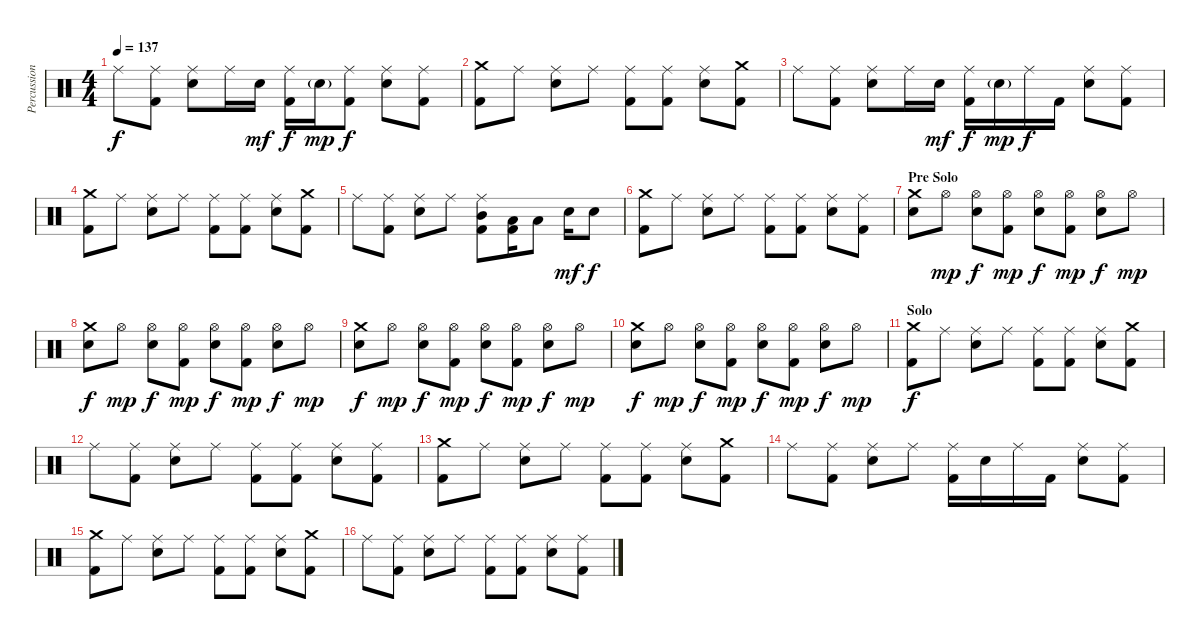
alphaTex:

\track ("Percussion" "Percussion") {instrument percussion}
\staff {score}
\articulation defaults
\ts (4 4)
\tempo 137
\clef neutral
\ks c "Ride (middle)".8{dy f}
("Ride (middle)" "Kick (hit) 2").8 ("Ride (middle)" "Electric Snare (hit)").8 "Ride (middle)".16 "Electric Snare (hit)".16{dy mf} ("Ride (middle)" "Kick (hit) 2").16{dy f} "Electric Snare (hit)"{g}.16{dy mp} ("Ride (middle)" "Kick (hit) 2").8{dy f} ("Ride (middle)" "Electric Snare (hit)").8 ("Ride (middle)" "Kick (hit) 2").8 |
("Crash medium (hit)" "Kick (hit) 2").8 "Ride (middle)".8 ("Ride (middle)" "Electric Snare (hit)").8 "Ride (middle)".8 ("Ride (middle)" "Kick (hit) 2").8 ("Ride (middle)" "Kick (hit) 2").8 ("Ride (middle)" "Electric Snare (hit)").8 ("Crash medium (hit)" "Kick (hit) 2").8 |
"Ride (middle)".8 ("Ride (middle)" "Kick (hit) 2").8 ("Ride (middle)" "Electric Snare (hit)").8 "Ride (middle)".16 "Electric Snare (hit)".16{dy mf} ("Ride (middle)" "Kick (hit) 2").16{dy f} "Electric Snare (hit)"{g}.16{dy mp} "Ride (middle)".16{dy f} "Kick (hit) 2".16 ("Ride (middle)" "Electric Snare (hit)").8 ("Ride (middle)" "Kick (hit) 2").8 |
("Crash medium (hit)" "Kick (hit) 2").8 "Ride (middle)".8 ("Ride (middle)" "Electric Snare (hit)").8 "Ride (middle)".8 ("Ride (middle)" "Kick (hit) 2").8 ("Ride (middle)" "Kick (hit) 2").8 ("Ride (middle)" "Electric Snare (hit)").8 ("Crash medium (hit)" "Kick (hit) 2").8 |
"Ride (middle)".8 ("Ride (middle)" "Kick (hit) 2").8 ("Ride (middle)" "Electric Snare (hit)").8 "Ride (middle)".8 ("Ride (middle)" "Mid Tom (hit)" "Kick (hit) 2").8 ("Low Tom (hit)" "Kick (hit) 2").16 "Low Tom (hit)".8 "Electric Snare (hit)".16{dy mf} "Electric Snare (hit)".8{dy f} |
("Crash medium (hit)" "Kick (hit) 2").8 "Ride (middle)".8 ("Ride (middle)" "Electric Snare (hit)").8 "Ride (middle)".8 ("Ride (middle)" "Kick (hit) 2").8 ("Ride (middle)" "Kick (hit) 2").8 ("Ride (middle)" "Electric Snare (hit)").8 ("Ride (middle)" "Kick (hit) 2").8 |
\section ("" "Pre Solo")
("Crash medium (hit)" "Electric Snare (hit)").8 "Hi-Hat (open)".8{dy mp} ("Hi-Hat (open)" "Electric Snare (hit)").8{dy f} ("Hi-Hat (open)" "Kick (hit) 2").8{dy mp} ("Hi-Hat (open)" "Electric Snare (hit)").8{dy f} ("Hi-Hat (open)" "Kick (hit) 2").8{dy mp} ("Hi-Hat (open)" "Electric Snare (hit)").8{dy f} "Hi-Hat (open)".8{dy mp} |
("Crash medium (hit)" "Electric Snare (hit)").8{dy f} "Hi-Hat (open)".8{dy mp} ("Hi-Hat (open)" "Electric Snare (hit)").8{dy f} ("Hi-Hat (open)" "Kick (hit) 2").8{dy mp} ("Hi-Hat (open)" "Electric Snare (hit)").8{dy f} ("Hi-Hat (open)" "Kick (hit) 2").8{dy mp} ("Hi-Hat (open)" "Electric Snare (hit)").8{dy f} "Hi-Hat (open)".8{dy mp} |
("Crash medium (hit)" "Electric Snare (hit)").8{dy f} "Hi-Hat (open)".8{dy mp} ("Hi-Hat (open)" "Electric Snare (hit)").8{dy f} ("Hi-Hat (open)" "Kick (hit) 2").8{dy mp} ("Hi-Hat (open)" "Electric Snare (hit)").8{dy f} ("Hi-Hat (open)" "Kick (hit) 2").8{dy mp} ("Hi-Hat (open)" "Electric Snare (hit)").8{dy f} "Hi-Hat (open)".8{dy mp} |
("Crash medium (hit)" "Electric Snare (hit)").8{dy f} "Hi-Hat (open)".8{dy mp} ("Hi-Hat (open)" "Electric Snare (hit)").8{dy f} ("Hi-Hat (open)" "Kick (hit) 2").8{dy mp} ("Hi-Hat (open)" "Electric Snare (hit)").8{dy f} ("Hi-Hat (open)" "Kick (hit) 2").8{dy mp} ("Hi-Hat (open)" "Electric Snare (hit)").8{dy f} "Hi-Hat (open)".8{dy mp} |
\section ("" "Solo")
("Crash medium (hit)" "Kick (hit) 2").8{dy f} "Ride (middle)".8 ("Ride (middle)" "Electric Snare (hit)").8 "Ride (middle)".8 ("Ride (middle)" "Kick (hit) 2").8 ("Ride (middle)" "Kick (hit) 2").8 ("Ride (middle)" "Electric Snare (hit)").8 ("Crash medium (hit)" "Kick (hit) 2").8 |
"Ride (middle)".8 ("Ride (middle)" "Kick (hit) 2").8 ("Ride (middle)" "Electric Snare (hit)").8 "Ride (middle)".8 ("Ride (middle)" "Kick (hit) 2").8 ("Ride (middle)" "Kick (hit) 2").8 ("Ride (middle)" "Electric Snare (hit)").8 ("Ride (middle)" "Kick (hit) 2").8 |
("Crash medium (hit)" "Kick (hit) 2").8 "Ride (middle)".8 ("Ride (middle)" "Electric Snare (hit)").8 "Ride (middle)".8 ("Ride (middle)" "Kick (hit) 2").8 ("Ride (middle)" "Kick (hit) 2").8 ("Ride (middle)" "Electric Snare (hit)").8 ("Crash medium (hit)" "Kick (hit) 2").8 |
"Ride (middle)".8 ("Ride (middle)" "Kick (hit) 2").8 ("Ride (middle)" "Electric Snare (hit)").8 "Ride (middle)".8 ("Ride (middle)" "Kick (hit) 2").16 "Electric Snare (hit)".16 "Ride (middle)".16 "Kick (hit) 2".16 ("Ride (middle)" "Electric Snare (hit)").8 ("Ride (middle)" "Kick (hit) 2").8 |
("Crash medium (hit)" "Kick (hit) 2").8 "Ride (middle)".8 ("Ride (middle)" "Electric Snare (hit)").8 "Ride (middle)".8 ("Ride (middle)" "Kick (hit) 2").8 ("Ride (middle)" "Kick (hit) 2").8 ("Ride (middle)" "Electric Snare (hit)").8 ("Crash medium (hit)" "Kick (hit) 2").8 |
"Ride (middle)".8 ("Ride (middle)" "Kick (hit) 2").8 ("Ride (middle)" "Electric Snare (hit)").8 "Ride (middle)".8 ("Ride (middle)" "Kick (hit) 2").8 ("Ride (middle)" "Kick (hit) 2").8 ("Ride (middle)" "Electric Snare (hit)").8 ("Ride (middle)" "Kick (hit) 2").8
